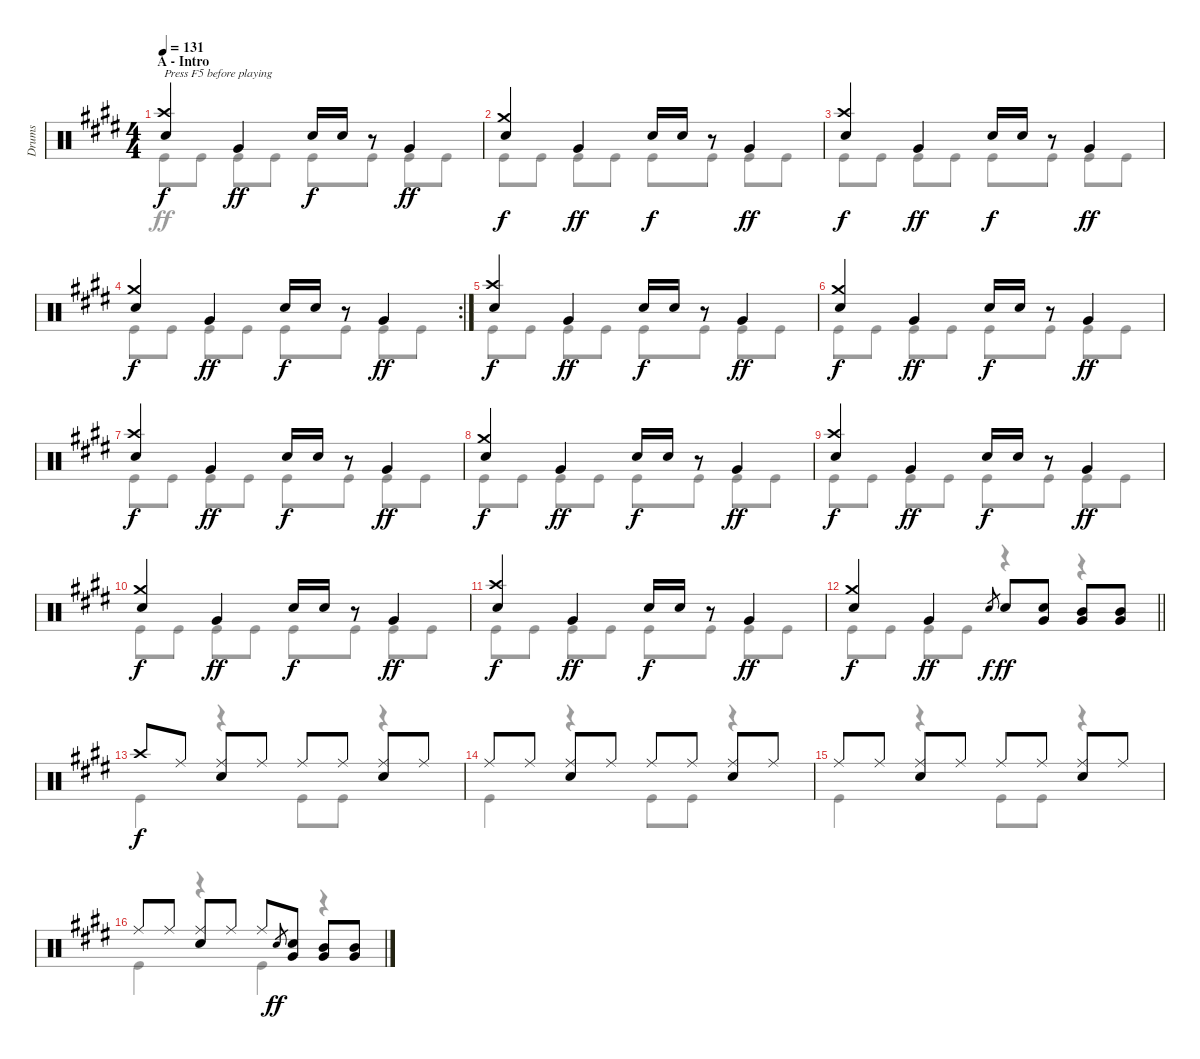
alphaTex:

\track ("Drums" "Drums") {instrument percussion}
\staff {score}
\articulation defaults
\voice
\ts (4 4)
\section ("" "A - Intro")
\tempo 131
\clef neutral
\ks c#minor
("Crash high (hit)" "Electric Snare (hit)").4{txt "Press F5 before playing" dy f} "Very Low Tom (hit)".4{dy ff} "Electric Snare (hit)".16{dy f} "Electric Snare (hit)".16 r.8 "Very Low Tom (hit)".4{dy ff} |
("Crash medium (hit)" "Electric Snare (hit)").4{dy f} "Very Low Tom (hit)".4{dy ff} "Electric Snare (hit)".16{dy f} "Electric Snare (hit)".16 r.8 "Very Low Tom (hit)".4{dy ff} |
("Crash high (hit)" "Electric Snare (hit)").4{dy f} "Very Low Tom (hit)".4{dy ff} "Electric Snare (hit)".16{dy f} "Electric Snare (hit)".16 r.8 "Very Low Tom (hit)".4{dy ff} |
\rc 2
("Crash medium (hit)" "Electric Snare (hit)").4{dy f} "Very Low Tom (hit)".4{dy ff} "Electric Snare (hit)".16{dy f} "Electric Snare (hit)".16 r.8 "Very Low Tom (hit)".4{dy ff} |
("Crash high (hit)" "Electric Snare (hit)").4{dy f} "Very Low Tom (hit)".4{dy ff} "Electric Snare (hit)".16{dy f} "Electric Snare (hit)".16 r.8 "Very Low Tom (hit)".4{dy ff} |
("Crash medium (hit)" "Electric Snare (hit)").4{dy f} "Very Low Tom (hit)".4{dy ff} "Electric Snare (hit)".16{dy f} "Electric Snare (hit)".16 r.8 "Very Low Tom (hit)".4{dy ff} |
("Crash high (hit)" "Electric Snare (hit)").4{dy f} "Very Low Tom (hit)".4{dy ff} "Electric Snare (hit)".16{dy f} "Electric Snare (hit)".16 r.8 "Very Low Tom (hit)".4{dy ff} |
("Crash medium (hit)" "Electric Snare (hit)").4{dy f} "Very Low Tom (hit)".4{dy ff} "Electric Snare (hit)".16{dy f} "Electric Snare (hit)".16 r.8 "Very Low Tom (hit)".4{dy ff} |
("Crash high (hit)" "Electric Snare (hit)").4{dy f} "Very Low Tom (hit)".4{dy ff} "Electric Snare (hit)".16{dy f} "Electric Snare (hit)".16 r.8 "Very Low Tom (hit)".4{dy ff} |
("Crash medium (hit)" "Electric Snare (hit)").4{dy f} "Very Low Tom (hit)".4{dy ff} "Electric Snare (hit)".16{dy f} "Electric Snare (hit)".16 r.8 "Very Low Tom (hit)".4{dy ff} |
("Crash high (hit)" "Electric Snare (hit)").4{dy f} "Very Low Tom (hit)".4{dy ff} "Electric Snare (hit)".16{dy f} "Electric Snare (hit)".16 r.8 "Very Low Tom (hit)".4{dy ff} |
\barLineRight lightlight
("Crash medium (hit)" "Electric Snare (hit)").4{dy f} "Very Low Tom (hit)".4{dy ff} "Electric Snare (hit)".8{gr dy f} "Electric Snare (hit)".8{dy ff} ("Electric Snare (hit)" "Very Low Tom (hit)").8 ("Mid Tom (hit)" "Very Low Tom (hit)").8 ("Mid Tom (hit)" "Very Low Tom (hit)").8 |
\section ("" "")
"Crash high (hit)".8{dy f} "Ride (middle)".8 ("Ride (middle)" "Electric Snare (hit)").8 "Ride (middle)".8 "Ride (middle)".8 "Ride (middle)".8 ("Ride (middle)" "Electric Snare (hit)").8 "Ride (middle)".8 |
"Ride (middle)".8 "Ride (middle)".8 ("Ride (middle)" "Electric Snare (hit)").8 "Ride (middle)".8 "Ride (middle)".8 "Ride (middle)".8 ("Ride (middle)" "Electric Snare (hit)").8 "Ride (middle)".8 |
"Ride (middle)".8 "Ride (middle)".8 ("Ride (middle)" "Electric Snare (hit)").8 "Ride (middle)".8 "Ride (middle)".8 "Ride (middle)".8 ("Ride (middle)" "Electric Snare (hit)").8 "Ride (middle)".8 |
"Ride (middle)".8 "Ride (middle)".8 ("Ride (middle)" "Electric Snare (hit)").8 "Ride (middle)".8 "Ride (middle)".8 "Electric Snare (hit)".8{gr dy ff} ("Electric Snare (hit)" "Very Low Tom (hit)").8 ("Mid Tom (hit)" "Very Low Tom (hit)").8 ("Mid Tom (hit)" "Very Low Tom (hit)").8
\voice
\clef neutral
\ottava regular
\simile none
\ks c#minor "Kick (hit)".8{dy ff} "Kick (hit)".8 "Kick (hit)".8 "Kick (hit)".8 "Kick (hit)".8 "Kick (hit)".8 "Kick (hit)".8 "Kick (hit)".8
|
"Kick (hit)".8 "Kick (hit)".8 "Kick (hit)".8 "Kick (hit)".8 "Kick (hit)".8 "Kick (hit)".8 "Kick (hit)".8 "Kick (hit)".8 |
"Kick (hit)".8 "Kick (hit)".8 "Kick (hit)".8 "Kick (hit)".8 "Kick (hit)".8 "Kick (hit)".8 "Kick (hit)".8 "Kick (hit)".8 |
"Kick (hit)".8 "Kick (hit)".8 "Kick (hit)".8 "Kick (hit)".8 "Kick (hit)".8 "Kick (hit)".8 "Kick (hit)".8 "Kick (hit)".8 |
"Kick (hit)".8 "Kick (hit)".8 "Kick (hit)".8 "Kick (hit)".8 "Kick (hit)".8 "Kick (hit)".8 "Kick (hit)".8 "Kick (hit)".8 |
"Kick (hit)".8 "Kick (hit)".8 "Kick (hit)".8 "Kick (hit)".8 "Kick (hit)".8 "Kick (hit)".8 "Kick (hit)".8 "Kick (hit)".8 |
"Kick (hit)".8 "Kick (hit)".8 "Kick (hit)".8 "Kick (hit)".8 "Kick (hit)".8 "Kick (hit)".8 "Kick (hit)".8 "Kick (hit)".8 |
"Kick (hit)".8 "Kick (hit)".8 "Kick (hit)".8 "Kick (hit)".8 "Kick (hit)".8 "Kick (hit)".8 "Kick (hit)".8 "Kick (hit)".8 |
"Kick (hit)".8 "Kick (hit)".8 "Kick (hit)".8 "Kick (hit)".8 "Kick (hit)".8 "Kick (hit)".8 "Kick (hit)".8 "Kick (hit)".8 |
"Kick (hit)".8 "Kick (hit)".8 "Kick (hit)".8 "Kick (hit)".8 "Kick (hit)".8 "Kick (hit)".8 "Kick (hit)".8 "Kick (hit)".8 |
"Kick (hit)".8 "Kick (hit)".8 "Kick (hit)".8 "Kick (hit)".8 "Kick (hit)".8 "Kick (hit)".8 "Kick (hit)".8 "Kick (hit)".8 |
\barLineRight lightlight "Kick (hit)".8 "Kick (hit)".8 "Kick (hit)".8 "Kick (hit)".8
r.4 r.4 |
"Kick (hit)".4 r.4 "Kick (hit)".8 "Kick (hit)".8 r.4 |
"Kick (hit)".4 r.4 "Kick (hit)".8 "Kick (hit)".8 r.4 |
"Kick (hit)".4 r.4 "Kick (hit)".8 "Kick (hit)".8 r.4 |
"Kick (hit)".4 r.4 "Kick (hit)".4 r.4
